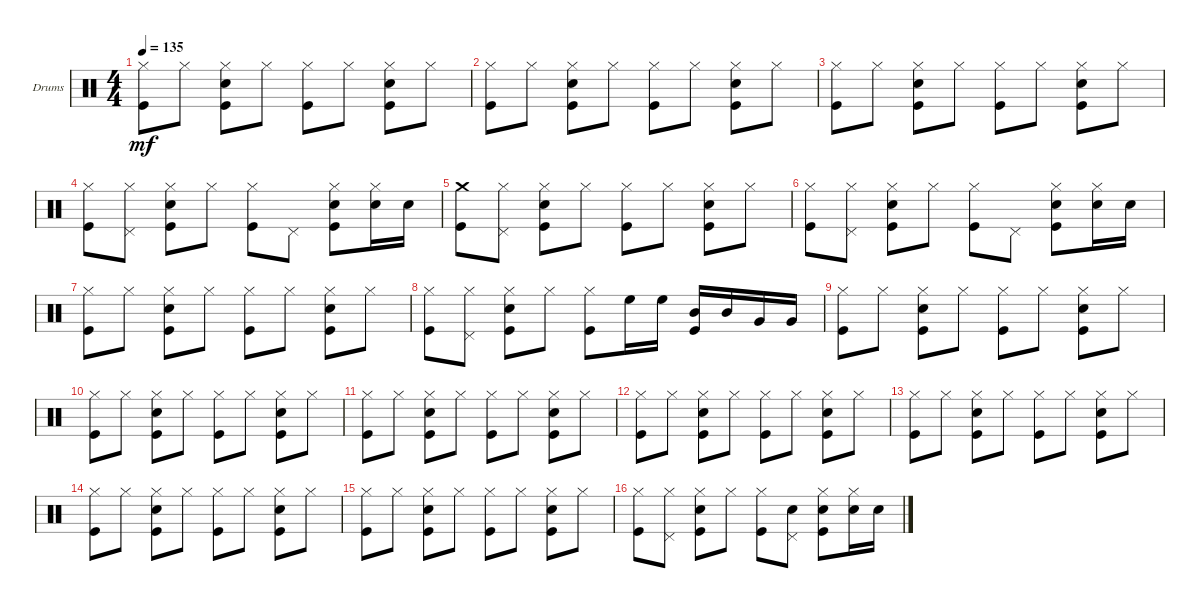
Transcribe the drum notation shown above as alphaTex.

\bracketExtendMode groupsimilarinstruments
\firstSystemTrackNameOrientation horizontal
\otherSystemsTrackNameOrientation horizontal
\track ("Drumkit" "Drums") {instrument percussion}
\staff {score}
\articulation defaults
\ts (4 4)
\tempo 135
\clef neutral
\ks c
("Hi-Hat (closed)" "Kick (hit)").8{dy mf} "Hi-Hat (closed)".8 ("Snare (hit) 2" "Hi-Hat (closed)" "Kick (hit)").8 "Hi-Hat (closed)".8 ("Hi-Hat (closed)" "Kick (hit)").8 "Hi-Hat (closed)".8 ("Snare (hit) 2" "Hi-Hat (closed)" "Kick (hit)").8 "Hi-Hat (closed)".8 |
("Kick (hit)" "Hi-Hat (closed)").8 "Hi-Hat (closed)".8 ("Hi-Hat (closed)" "Snare (hit) 2" "Kick (hit)").8 "Hi-Hat (closed)".8 ("Hi-Hat (closed)" "Kick (hit)").8 "Hi-Hat (closed)".8 ("Snare (hit) 2" "Hi-Hat (closed)" "Kick (hit)").8 "Hi-Hat (closed)".8 |
("Hi-Hat (closed)" "Kick (hit)").8 "Hi-Hat (closed)".8 ("Snare (hit) 2" "Hi-Hat (closed)" "Kick (hit)").8 "Hi-Hat (closed)".8 ("Hi-Hat (closed)" "Kick (hit)").8 "Hi-Hat (closed)".8 ("Snare (hit) 2" "Hi-Hat (closed)" "Kick (hit)").8 "Hi-Hat (closed)".8 |
("Kick (hit)" "Hi-Hat (closed)").8 ("Pedal Hi-Hat (hit)" "Hi-Hat (closed)").8 ("Hi-Hat (closed)" "Snare (hit) 2" "Kick (hit)").8 "Hi-Hat (closed)".8 ("Kick (hit)" "Hi-Hat (closed)").8 "Pedal Hi-Hat (hit)".8 ("Snare (hit) 2" "Hi-Hat (closed)" "Kick (hit)").8 ("Hi-Hat (closed)" "Snare (hit) 2").16 "Snare (hit) 2".16 |
("Crash medium (hit)" "Kick (hit)").8 ("Pedal Hi-Hat (hit)" "Hi-Hat (closed)").8 ("Hi-Hat (closed)" "Snare (hit) 2" "Kick (hit)").8 "Hi-Hat (closed)".8 ("Hi-Hat (closed)" "Kick (hit)").8 "Hi-Hat (closed)".8 ("Snare (hit) 2" "Hi-Hat (closed)" "Kick (hit)").8 "Hi-Hat (closed)".8 |
("Kick (hit)" "Hi-Hat (closed)").8 ("Hi-Hat (closed)" "Pedal Hi-Hat (hit)").8 ("Kick (hit)" "Hi-Hat (closed)" "Snare (hit) 2").8 "Hi-Hat (closed)".8 ("Kick (hit)" "Hi-Hat (closed)").8 "Pedal Hi-Hat (hit)".8 ("Snare (hit) 2" "Hi-Hat (closed)" "Kick (hit)").8 ("Hi-Hat (closed)" "Snare (hit) 2").16 "Snare (hit) 2".16 |
("Hi-Hat (closed)" "Kick (hit)").8 "Hi-Hat (closed)".8 ("Snare (hit) 2" "Hi-Hat (closed)" "Kick (hit)").8 "Hi-Hat (closed)".8 ("Hi-Hat (closed)" "Kick (hit)").8 "Hi-Hat (closed)".8 ("Snare (hit) 2" "Hi-Hat (closed)" "Kick (hit)").8 "Hi-Hat (closed)".8 |
("Kick (hit)" "Hi-Hat (closed)").8 ("Hi-Hat (closed)" "Pedal Hi-Hat (hit)").8 ("Kick (hit)" "Snare (hit) 2" "Hi-Hat (closed)").8 "Hi-Hat (closed)".8 ("Hi-Hat (closed)" "Kick (hit)").8 "High Floor Tom (hit)".16 "High Floor Tom (hit)".16 ("Mid Tom (hit)" "Kick (hit)").16 "Mid Tom (hit)".16 "Very Low Tom (hit)".16 "Very Low Tom (hit)".16 |
("Kick (hit)" "Hi-Hat (closed)").8 "Hi-Hat (closed)".8 ("Snare (hit) 2" "Hi-Hat (closed)" "Kick (hit)").8 "Hi-Hat (closed)".8 ("Hi-Hat (closed)" "Kick (hit)").8 "Hi-Hat (closed)".8 ("Snare (hit) 2" "Hi-Hat (closed)" "Kick (hit)").8 "Hi-Hat (closed)".8 |
("Hi-Hat (closed)" "Kick (hit)").8 "Hi-Hat (closed)".8 ("Snare (hit) 2" "Hi-Hat (closed)" "Kick (hit)").8 "Hi-Hat (closed)".8 ("Hi-Hat (closed)" "Kick (hit)").8 "Hi-Hat (closed)".8 ("Snare (hit) 2" "Hi-Hat (closed)" "Kick (hit)").8 "Hi-Hat (closed)".8 |
("Kick (hit)" "Hi-Hat (closed)").8 "Hi-Hat (closed)".8 ("Snare (hit) 2" "Kick (hit)" "Hi-Hat (closed)").8 "Hi-Hat (closed)".8 ("Hi-Hat (closed)" "Kick (hit)").8 "Hi-Hat (closed)".8 ("Snare (hit) 2" "Hi-Hat (closed)" "Kick (hit)").8 "Hi-Hat (closed)".8 |
("Hi-Hat (closed)" "Kick (hit)").8 "Hi-Hat (closed)".8 ("Snare (hit) 2" "Hi-Hat (closed)" "Kick (hit)").8 "Hi-Hat (closed)".8 ("Hi-Hat (closed)" "Kick (hit)").8 "Hi-Hat (closed)".8 ("Snare (hit) 2" "Hi-Hat (closed)" "Kick (hit)").8 "Hi-Hat (closed)".8 |
("Kick (hit)" "Hi-Hat (closed)").8 "Hi-Hat (closed)".8 ("Snare (hit) 2" "Hi-Hat (closed)" "Kick (hit)").8 "Hi-Hat (closed)".8 ("Hi-Hat (closed)" "Kick (hit)").8 "Hi-Hat (closed)".8 ("Snare (hit) 2" "Hi-Hat (closed)" "Kick (hit)").8 "Hi-Hat (closed)".8 |
("Kick (hit)" "Hi-Hat (closed)").8 "Hi-Hat (closed)".8 ("Snare (hit) 2" "Kick (hit)" "Hi-Hat (closed)").8 "Hi-Hat (closed)".8 ("Hi-Hat (closed)" "Kick (hit)").8 "Hi-Hat (closed)".8 ("Snare (hit) 2" "Hi-Hat (closed)" "Kick (hit)").8 "Hi-Hat (closed)".8 |
("Kick (hit)" "Hi-Hat (closed)").8 "Hi-Hat (closed)".8 ("Hi-Hat (closed)" "Kick (hit)" "Snare (hit) 2").8 "Hi-Hat (closed)".8 ("Hi-Hat (closed)" "Kick (hit)").8 "Hi-Hat (closed)".8 ("Snare (hit) 2" "Hi-Hat (closed)" "Kick (hit)").8 "Hi-Hat (closed)".8 |
("Kick (hit)" "Hi-Hat (closed)").8 ("Pedal Hi-Hat (hit)" "Hi-Hat (closed)").8 ("Snare (hit) 2" "Kick (hit)" "Hi-Hat (closed)").8 "Hi-Hat (closed)".8 ("Kick (hit)" "Hi-Hat (closed)").8 ("Snare (hit) 2" "Pedal Hi-Hat (hit)").8 ("Kick (hit)" "Snare (hit) 2" "Hi-Hat (closed)").8 ("Hi-Hat (closed)" "Snare (hit) 2").16 "Snare (hit) 2".16
